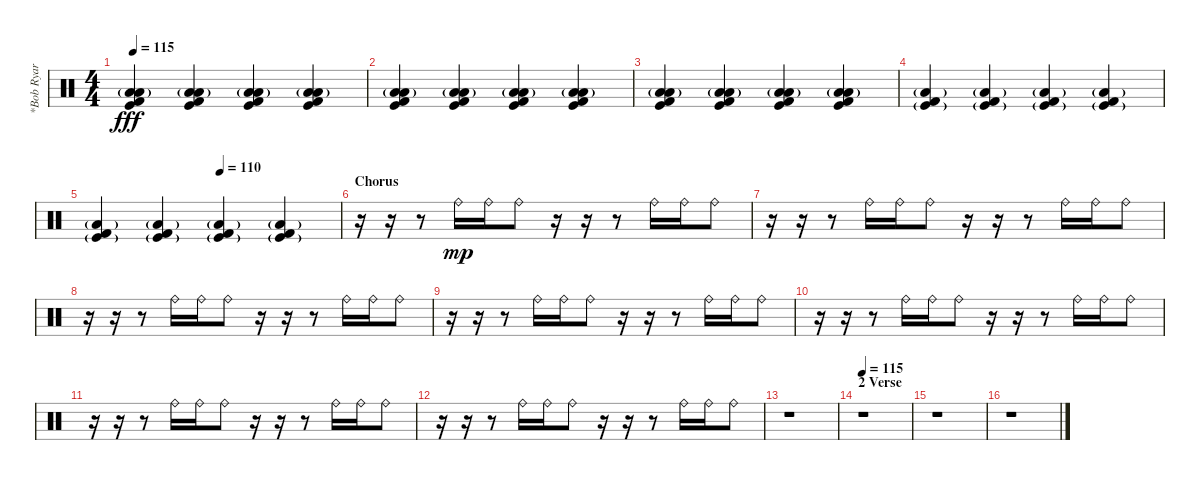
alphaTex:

\track ("*Bob Ryar (Drums)" "*Bob Ryar ") {instrument percussion}
\staff {score}
\articulation defaults
\ts (4 4)
\tempo 115
\clef neutral
\ks c
("Low Tom (hit)"{g} "Low Floor Tom (hit)"{g} "Kick (hit)" "Kick (hit) 2").4{dy fff} ("Low Tom (hit)"{g} "Low Floor Tom (hit)"{g} "Kick (hit)" "Kick (hit) 2").4 ("Low Tom (hit)"{g} "Low Floor Tom (hit)"{g} "Kick (hit)" "Kick (hit) 2").4 ("Low Tom (hit)"{g} "Low Floor Tom (hit)"{g} "Kick (hit)" "Kick (hit) 2").4 |
("Low Tom (hit)"{g} "Low Floor Tom (hit)"{g} "Kick (hit)" "Kick (hit) 2").4 ("Low Tom (hit)"{g} "Low Floor Tom (hit)"{g} "Kick (hit)" "Kick (hit) 2").4 ("Low Tom (hit)"{g} "Low Floor Tom (hit)"{g} "Kick (hit)" "Kick (hit) 2").4 ("Low Tom (hit)"{g} "Low Floor Tom (hit)"{g} "Kick (hit)" "Kick (hit) 2").4 |
("Low Tom (hit)"{g} "Low Floor Tom (hit)"{g} "Kick (hit)" "Kick (hit) 2").4 ("Low Tom (hit)"{g} "Low Floor Tom (hit)"{g} "Kick (hit)" "Kick (hit) 2").4 ("Low Tom (hit)"{g} "Low Floor Tom (hit)"{g} "Kick (hit)" "Kick (hit) 2").4 ("Low Tom (hit)"{g} "Low Floor Tom (hit)"{g} "Kick (hit)" "Kick (hit) 2").4 |
("Low Floor Tom (hit)"{g} "Kick (hit)"{g} "Kick (hit) 2").4 ("Low Floor Tom (hit)"{g} "Kick (hit)"{g} "Kick (hit) 2").4 ("Low Floor Tom (hit)"{g} "Kick (hit)"{g} "Kick (hit) 2").4 ("Low Floor Tom (hit)"{g} "Kick (hit)"{g} "Kick (hit) 2").4 |
\tempo (110 0.5)
("Low Floor Tom (hit)"{g} "Kick (hit)"{g} "Kick (hit) 2").4 ("Low Floor Tom (hit)"{g} "Kick (hit)"{g} "Kick (hit) 2").4 ("Low Floor Tom (hit)"{g} "Kick (hit)"{g} "Kick (hit) 2").4 ("Low Floor Tom (hit)"{g} "Kick (hit)"{g} "Kick (hit) 2").4 |
\section ("" "Chorus")
r.16 r.16 r.8 "Ride (bell)".16{dy mp} "Ride (bell)".16 "Ride (bell)".8 r.16 r.16 r.8 "Ride (bell)".16 "Ride (bell)".16 "Ride (bell)".8 |
r.16 r.16 r.8 "Ride (bell)".16 "Ride (bell)".16 "Ride (bell)".8 r.16 r.16 r.8 "Ride (bell)".16 "Ride (bell)".16 "Ride (bell)".8 |
r.16 r.16 r.8 "Ride (bell)".16 "Ride (bell)".16 "Ride (bell)".8 r.16 r.16 r.8 "Ride (bell)".16 "Ride (bell)".16 "Ride (bell)".8 |
r.16 r.16 r.8 "Ride (bell)".16 "Ride (bell)".16 "Ride (bell)".8 r.16 r.16 r.8 "Ride (bell)".16 "Ride (bell)".16 "Ride (bell)".8 |
r.16 r.16 r.8 "Ride (bell)".16 "Ride (bell)".16 "Ride (bell)".8 r.16 r.16 r.8 "Ride (bell)".16 "Ride (bell)".16 "Ride (bell)".8 |
r.16 r.16 r.8 "Ride (bell)".16 "Ride (bell)".16 "Ride (bell)".8 r.16 r.16 r.8 "Ride (bell)".16 "Ride (bell)".16 "Ride (bell)".8 |
r.16 r.16 r.8 "Ride (bell)".16 "Ride (bell)".16 "Ride (bell)".8 r.16 r.16 r.8 "Ride (bell)".16 "Ride (bell)".16 "Ride (bell)".8 |
r.1 |
\section ("" "2 Verse")
\tempo 115
r.1 |
r.1 |
r.1
